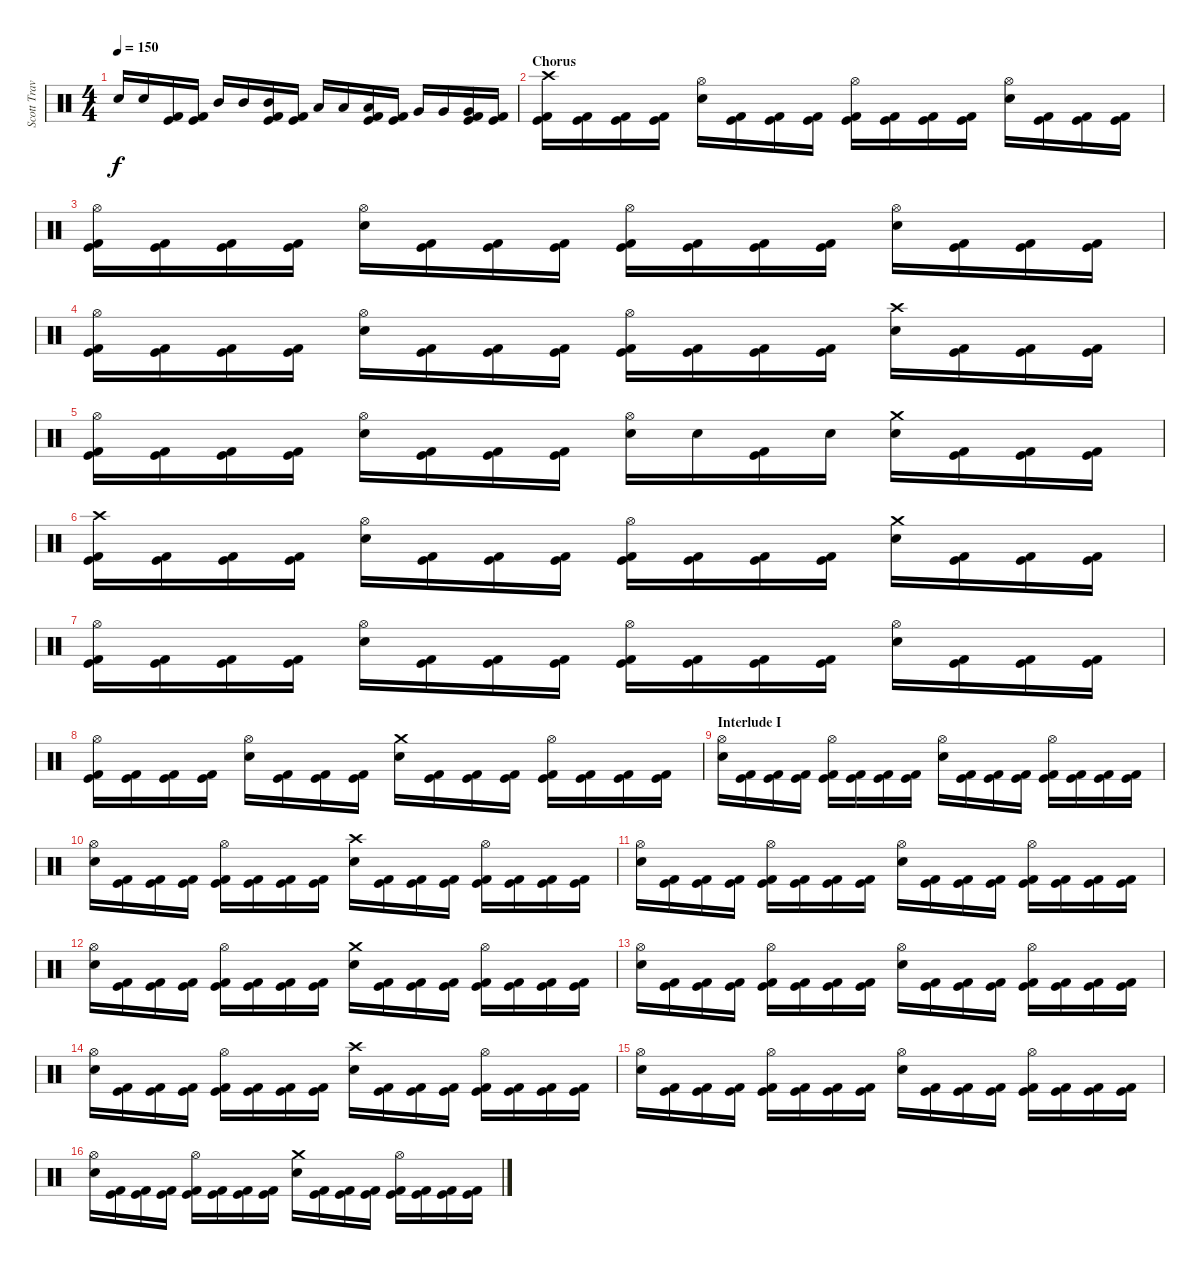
\track ("Scott Travis" "Scott Trav") {instrument percussion}
\staff {score}
\articulation defaults
\ts (4 4)
\tempo 150
\clef neutral
\ks c "Electric Snare (hit)".16{dy f} "Electric Snare (hit)".16
("Kick (hit)" "Kick (hit) 2").16 ("Kick (hit)" "Kick (hit) 2").16 "Mid Tom (hit)".16 "Mid Tom (hit)".16 ("Mid Tom (hit)" "Kick (hit)" "Kick (hit) 2").16 ("Kick (hit)" "Kick (hit) 2").16 "Low Tom (hit)".16 "Low Tom (hit)".16 ("Low Tom (hit)" "Kick (hit)" "Kick (hit) 2").16 ("Kick (hit)" "Kick (hit) 2").16 "Very Low Tom (hit)".16 "Very Low Tom (hit)".16 ("Very Low Tom (hit)" "Kick (hit)" "Kick (hit) 2").16 ("Kick (hit)" "Kick (hit) 2").16 |
\section ("" "Chorus")
("Crash high (hit)" "Kick (hit)" "Kick (hit) 2").16 ("Kick (hit)" "Kick (hit) 2").16 ("Kick (hit)" "Kick (hit) 2").16 ("Kick (hit)" "Kick (hit) 2").16 ("Hi-Hat (open)" "Electric Snare (hit)").16 ("Kick (hit)" "Kick (hit) 2").16 ("Kick (hit)" "Kick (hit) 2").16 ("Kick (hit)" "Kick (hit) 2").16 ("Hi-Hat (open)" "Kick (hit)" "Kick (hit) 2").16 ("Kick (hit)" "Kick (hit) 2").16 ("Kick (hit)" "Kick (hit) 2").16 ("Kick (hit)" "Kick (hit) 2").16 ("Hi-Hat (open)" "Electric Snare (hit)").16 ("Kick (hit)" "Kick (hit) 2").16 ("Kick (hit)" "Kick (hit) 2").16 ("Kick (hit)" "Kick (hit) 2").16 |
("Hi-Hat (open)" "Kick (hit)" "Kick (hit) 2").16 ("Kick (hit)" "Kick (hit) 2").16 ("Kick (hit)" "Kick (hit) 2").16 ("Kick (hit)" "Kick (hit) 2").16 ("Hi-Hat (open)" "Electric Snare (hit)").16 ("Kick (hit)" "Kick (hit) 2").16 ("Kick (hit)" "Kick (hit) 2").16 ("Kick (hit)" "Kick (hit) 2").16 ("Hi-Hat (open)" "Kick (hit)" "Kick (hit) 2").16 ("Kick (hit)" "Kick (hit) 2").16 ("Kick (hit)" "Kick (hit) 2").16 ("Kick (hit)" "Kick (hit) 2").16 ("Hi-Hat (open)" "Electric Snare (hit)").16 ("Kick (hit)" "Kick (hit) 2").16 ("Kick (hit)" "Kick (hit) 2").16 ("Kick (hit)" "Kick (hit) 2").16 |
("Hi-Hat (open)" "Kick (hit)" "Kick (hit) 2").16 ("Kick (hit)" "Kick (hit) 2").16 ("Kick (hit)" "Kick (hit) 2").16 ("Kick (hit)" "Kick (hit) 2").16 ("Hi-Hat (open)" "Electric Snare (hit)").16 ("Kick (hit)" "Kick (hit) 2").16 ("Kick (hit)" "Kick (hit) 2").16 ("Kick (hit)" "Kick (hit) 2").16 ("Hi-Hat (open)" "Kick (hit)" "Kick (hit) 2").16 ("Kick (hit)" "Kick (hit) 2").16 ("Kick (hit)" "Kick (hit) 2").16 ("Kick (hit)" "Kick (hit) 2").16 ("Crash high (hit)" "Electric Snare (hit)").16 ("Kick (hit)" "Kick (hit) 2").16 ("Kick (hit)" "Kick (hit) 2").16 ("Kick (hit)" "Kick (hit) 2").16 |
("Hi-Hat (open)" "Kick (hit)" "Kick (hit) 2").16 ("Kick (hit)" "Kick (hit) 2").16 ("Kick (hit)" "Kick (hit) 2").16 ("Kick (hit)" "Kick (hit) 2").16 ("Hi-Hat (open)" "Electric Snare (hit)").16 ("Kick (hit)" "Kick (hit) 2").16 ("Kick (hit)" "Kick (hit) 2").16 ("Kick (hit)" "Kick (hit) 2").16 ("Hi-Hat (open)" "Electric Snare (hit)").16 "Electric Snare (hit)".16 ("Kick (hit)" "Kick (hit) 2").16 "Electric Snare (hit)".16 ("Crash medium (hit)" "Electric Snare (hit)").16 ("Kick (hit)" "Kick (hit) 2").16 ("Kick (hit)" "Kick (hit) 2").16 ("Kick (hit)" "Kick (hit) 2").16 |
("Crash high (hit)" "Kick (hit)" "Kick (hit) 2").16 ("Kick (hit)" "Kick (hit) 2").16 ("Kick (hit)" "Kick (hit) 2").16 ("Kick (hit)" "Kick (hit) 2").16 ("Hi-Hat (open)" "Electric Snare (hit)").16 ("Kick (hit)" "Kick (hit) 2").16 ("Kick (hit)" "Kick (hit) 2").16 ("Kick (hit)" "Kick (hit) 2").16 ("Hi-Hat (open)" "Kick (hit)" "Kick (hit) 2").16 ("Kick (hit)" "Kick (hit) 2").16 ("Kick (hit)" "Kick (hit) 2").16 ("Kick (hit)" "Kick (hit) 2").16 ("Crash medium (hit)" "Electric Snare (hit)").16 ("Kick (hit)" "Kick (hit) 2").16 ("Kick (hit)" "Kick (hit) 2").16 ("Kick (hit)" "Kick (hit) 2").16 |
("Hi-Hat (open)" "Kick (hit)" "Kick (hit) 2").16 ("Kick (hit)" "Kick (hit) 2").16 ("Kick (hit)" "Kick (hit) 2").16 ("Kick (hit)" "Kick (hit) 2").16 ("Hi-Hat (open)" "Electric Snare (hit)").16 ("Kick (hit)" "Kick (hit) 2").16 ("Kick (hit)" "Kick (hit) 2").16 ("Kick (hit)" "Kick (hit) 2").16 ("Hi-Hat (open)" "Kick (hit)" "Kick (hit) 2").16 ("Kick (hit)" "Kick (hit) 2").16 ("Kick (hit)" "Kick (hit) 2").16 ("Kick (hit)" "Kick (hit) 2").16 ("Hi-Hat (open)" "Electric Snare (hit)").16 ("Kick (hit)" "Kick (hit) 2").16 ("Kick (hit)" "Kick (hit) 2").16 ("Kick (hit)" "Kick (hit) 2").16 |
("Hi-Hat (open)" "Kick (hit)" "Kick (hit) 2").16 ("Kick (hit)" "Kick (hit) 2").16 ("Kick (hit)" "Kick (hit) 2").16 ("Kick (hit)" "Kick (hit) 2").16 ("Hi-Hat (open)" "Electric Snare (hit)").16 ("Kick (hit)" "Kick (hit) 2").16 ("Kick (hit)" "Kick (hit) 2").16 ("Kick (hit)" "Kick (hit) 2").16 ("Crash medium (hit)" "Electric Snare (hit)").16 ("Kick (hit)" "Kick (hit) 2").16 ("Kick (hit)" "Kick (hit) 2").16 ("Kick (hit)" "Kick (hit) 2").16 ("Hi-Hat (open)" "Kick (hit)" "Kick (hit) 2").16 ("Kick (hit)" "Kick (hit) 2").16 ("Kick (hit)" "Kick (hit) 2").16 ("Kick (hit)" "Kick (hit) 2").16 |
\section ("" "Interlude I")
("Hi-Hat (open)" "Electric Snare (hit)").16 ("Kick (hit)" "Kick (hit) 2").16 ("Kick (hit)" "Kick (hit) 2").16 ("Kick (hit)" "Kick (hit) 2").16 ("Hi-Hat (open)" "Kick (hit)" "Kick (hit) 2").16 ("Kick (hit)" "Kick (hit) 2").16 ("Kick (hit)" "Kick (hit) 2").16 ("Kick (hit)" "Kick (hit) 2").16 ("Hi-Hat (open)" "Electric Snare (hit)").16 ("Kick (hit)" "Kick (hit) 2").16 ("Kick (hit)" "Kick (hit) 2").16 ("Kick (hit)" "Kick (hit) 2").16 ("Hi-Hat (open)" "Kick (hit)" "Kick (hit) 2").16 ("Kick (hit)" "Kick (hit) 2").16 ("Kick (hit)" "Kick (hit) 2").16 ("Kick (hit)" "Kick (hit) 2").16 |
("Hi-Hat (open)" "Electric Snare (hit)").16 ("Kick (hit)" "Kick (hit) 2").16 ("Kick (hit)" "Kick (hit) 2").16 ("Kick (hit)" "Kick (hit) 2").16 ("Hi-Hat (open)" "Kick (hit)" "Kick (hit) 2").16 ("Kick (hit)" "Kick (hit) 2").16 ("Kick (hit)" "Kick (hit) 2").16 ("Kick (hit)" "Kick (hit) 2").16 ("Crash high (hit)" "Electric Snare (hit)").16 ("Kick (hit)" "Kick (hit) 2").16 ("Kick (hit)" "Kick (hit) 2").16 ("Kick (hit)" "Kick (hit) 2").16 ("Hi-Hat (open)" "Kick (hit)" "Kick (hit) 2").16 ("Kick (hit)" "Kick (hit) 2").16 ("Kick (hit)" "Kick (hit) 2").16 ("Kick (hit)" "Kick (hit) 2").16 |
("Hi-Hat (open)" "Electric Snare (hit)").16 ("Kick (hit)" "Kick (hit) 2").16 ("Kick (hit)" "Kick (hit) 2").16 ("Kick (hit)" "Kick (hit) 2").16 ("Hi-Hat (open)" "Kick (hit)" "Kick (hit) 2").16 ("Kick (hit)" "Kick (hit) 2").16 ("Kick (hit)" "Kick (hit) 2").16 ("Kick (hit)" "Kick (hit) 2").16 ("Hi-Hat (open)" "Electric Snare (hit)").16 ("Kick (hit)" "Kick (hit) 2").16 ("Kick (hit)" "Kick (hit) 2").16 ("Kick (hit)" "Kick (hit) 2").16 ("Hi-Hat (open)" "Kick (hit)" "Kick (hit) 2").16 ("Kick (hit)" "Kick (hit) 2").16 ("Kick (hit)" "Kick (hit) 2").16 ("Kick (hit)" "Kick (hit) 2").16 |
("Hi-Hat (open)" "Electric Snare (hit)").16 ("Kick (hit)" "Kick (hit) 2").16 ("Kick (hit)" "Kick (hit) 2").16 ("Kick (hit)" "Kick (hit) 2").16 ("Hi-Hat (open)" "Kick (hit)" "Kick (hit) 2").16 ("Kick (hit)" "Kick (hit) 2").16 ("Kick (hit)" "Kick (hit) 2").16 ("Kick (hit)" "Kick (hit) 2").16 ("Crash medium (hit)" "Electric Snare (hit)").16 ("Kick (hit)" "Kick (hit) 2").16 ("Kick (hit)" "Kick (hit) 2").16 ("Kick (hit)" "Kick (hit) 2").16 ("Hi-Hat (open)" "Kick (hit)" "Kick (hit) 2").16 ("Kick (hit)" "Kick (hit) 2").16 ("Kick (hit)" "Kick (hit) 2").16 ("Kick (hit)" "Kick (hit) 2").16 |
("Hi-Hat (open)" "Electric Snare (hit)").16 ("Kick (hit)" "Kick (hit) 2").16 ("Kick (hit)" "Kick (hit) 2").16 ("Kick (hit)" "Kick (hit) 2").16 ("Hi-Hat (open)" "Kick (hit)" "Kick (hit) 2").16 ("Kick (hit)" "Kick (hit) 2").16 ("Kick (hit)" "Kick (hit) 2").16 ("Kick (hit)" "Kick (hit) 2").16 ("Hi-Hat (open)" "Electric Snare (hit)").16 ("Kick (hit)" "Kick (hit) 2").16 ("Kick (hit)" "Kick (hit) 2").16 ("Kick (hit)" "Kick (hit) 2").16 ("Hi-Hat (open)" "Kick (hit)" "Kick (hit) 2").16 ("Kick (hit)" "Kick (hit) 2").16 ("Kick (hit)" "Kick (hit) 2").16 ("Kick (hit)" "Kick (hit) 2").16 |
("Hi-Hat (open)" "Electric Snare (hit)").16 ("Kick (hit)" "Kick (hit) 2").16 ("Kick (hit)" "Kick (hit) 2").16 ("Kick (hit)" "Kick (hit) 2").16 ("Hi-Hat (open)" "Kick (hit)" "Kick (hit) 2").16 ("Kick (hit)" "Kick (hit) 2").16 ("Kick (hit)" "Kick (hit) 2").16 ("Kick (hit)" "Kick (hit) 2").16 ("Crash high (hit)" "Electric Snare (hit)").16 ("Kick (hit)" "Kick (hit) 2").16 ("Kick (hit)" "Kick (hit) 2").16 ("Kick (hit)" "Kick (hit) 2").16 ("Hi-Hat (open)" "Kick (hit)" "Kick (hit) 2").16 ("Kick (hit)" "Kick (hit) 2").16 ("Kick (hit)" "Kick (hit) 2").16 ("Kick (hit)" "Kick (hit) 2").16 |
("Hi-Hat (open)" "Electric Snare (hit)").16 ("Kick (hit)" "Kick (hit) 2").16 ("Kick (hit)" "Kick (hit) 2").16 ("Kick (hit)" "Kick (hit) 2").16 ("Hi-Hat (open)" "Kick (hit)" "Kick (hit) 2").16 ("Kick (hit)" "Kick (hit) 2").16 ("Kick (hit)" "Kick (hit) 2").16 ("Kick (hit)" "Kick (hit) 2").16 ("Hi-Hat (open)" "Electric Snare (hit)").16 ("Kick (hit)" "Kick (hit) 2").16 ("Kick (hit)" "Kick (hit) 2").16 ("Kick (hit)" "Kick (hit) 2").16 ("Hi-Hat (open)" "Kick (hit)" "Kick (hit) 2").16 ("Kick (hit)" "Kick (hit) 2").16 ("Kick (hit)" "Kick (hit) 2").16 ("Kick (hit)" "Kick (hit) 2").16 |
("Hi-Hat (open)" "Electric Snare (hit)").16 ("Kick (hit)" "Kick (hit) 2").16 ("Kick (hit)" "Kick (hit) 2").16 ("Kick (hit)" "Kick (hit) 2").16 ("Hi-Hat (open)" "Kick (hit)" "Kick (hit) 2").16 ("Kick (hit)" "Kick (hit) 2").16 ("Kick (hit)" "Kick (hit) 2").16 ("Kick (hit)" "Kick (hit) 2").16 ("Crash medium (hit)" "Electric Snare (hit)").16 ("Kick (hit)" "Kick (hit) 2").16 ("Kick (hit)" "Kick (hit) 2").16 ("Kick (hit)" "Kick (hit) 2").16 ("Hi-Hat (open)" "Kick (hit)" "Kick (hit) 2").16 ("Kick (hit)" "Kick (hit) 2").16 ("Kick (hit)" "Kick (hit) 2").16 ("Kick (hit)" "Kick (hit) 2").16
